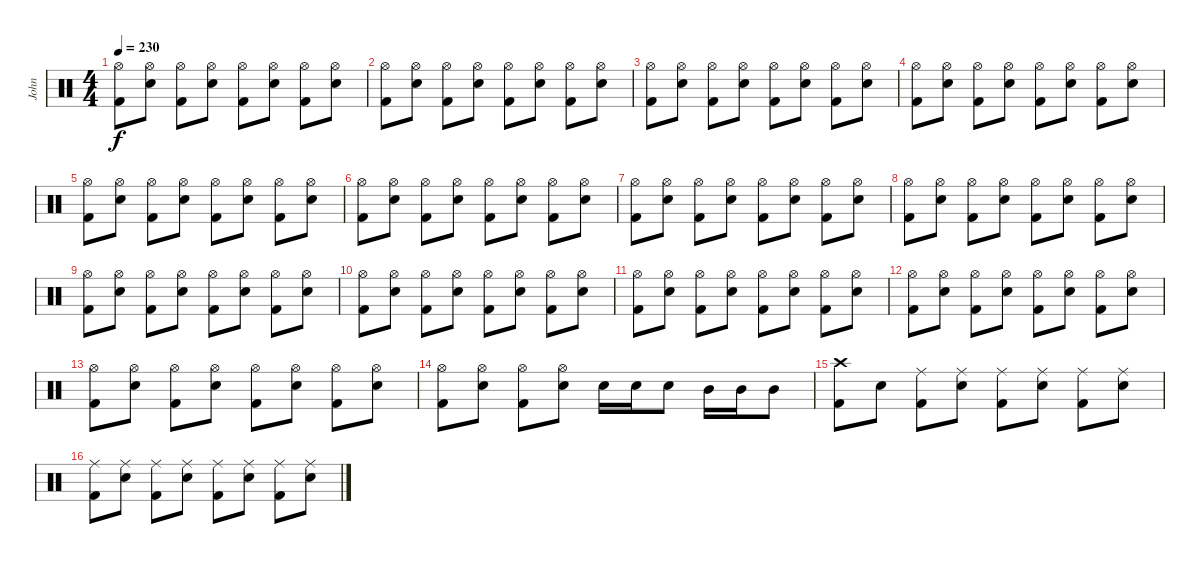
\track ("John" "John") {instrument percussion}
\staff {score}
\articulation defaults
\ts (4 4)
\tempo 230
\clef neutral
\ks c
("Hi-Hat (open)" "Kick (hit) 2").8{dy f} ("Hi-Hat (open)" "Electric Snare (hit)").8 ("Hi-Hat (open)" "Kick (hit) 2").8 ("Hi-Hat (open)" "Electric Snare (hit)").8 ("Hi-Hat (open)" "Kick (hit) 2").8 ("Hi-Hat (open)" "Electric Snare (hit)").8 ("Hi-Hat (open)" "Kick (hit) 2").8 ("Hi-Hat (open)" "Electric Snare (hit)").8 |
("Hi-Hat (open)" "Kick (hit) 2").8 ("Hi-Hat (open)" "Electric Snare (hit)").8 ("Hi-Hat (open)" "Kick (hit) 2").8 ("Hi-Hat (open)" "Electric Snare (hit)").8 ("Hi-Hat (open)" "Kick (hit) 2").8 ("Hi-Hat (open)" "Electric Snare (hit)").8 ("Hi-Hat (open)" "Kick (hit) 2").8 ("Hi-Hat (open)" "Electric Snare (hit)").8 |
("Hi-Hat (open)" "Kick (hit) 2").8 ("Hi-Hat (open)" "Electric Snare (hit)").8 ("Hi-Hat (open)" "Kick (hit) 2").8 ("Hi-Hat (open)" "Electric Snare (hit)").8 ("Hi-Hat (open)" "Kick (hit) 2").8 ("Hi-Hat (open)" "Electric Snare (hit)").8 ("Hi-Hat (open)" "Kick (hit) 2").8 ("Hi-Hat (open)" "Electric Snare (hit)").8 |
("Hi-Hat (open)" "Kick (hit) 2").8 ("Hi-Hat (open)" "Electric Snare (hit)").8 ("Hi-Hat (open)" "Kick (hit) 2").8 ("Hi-Hat (open)" "Electric Snare (hit)").8 ("Hi-Hat (open)" "Kick (hit) 2").8 ("Hi-Hat (open)" "Electric Snare (hit)").8 ("Hi-Hat (open)" "Kick (hit) 2").8 ("Hi-Hat (open)" "Electric Snare (hit)").8 |
("Hi-Hat (open)" "Kick (hit) 2").8 ("Hi-Hat (open)" "Electric Snare (hit)").8 ("Hi-Hat (open)" "Kick (hit) 2").8 ("Hi-Hat (open)" "Electric Snare (hit)").8 ("Hi-Hat (open)" "Kick (hit) 2").8 ("Hi-Hat (open)" "Electric Snare (hit)").8 ("Hi-Hat (open)" "Kick (hit) 2").8 ("Hi-Hat (open)" "Electric Snare (hit)").8 |
("Hi-Hat (open)" "Kick (hit) 2").8 ("Hi-Hat (open)" "Electric Snare (hit)").8 ("Hi-Hat (open)" "Kick (hit) 2").8 ("Hi-Hat (open)" "Electric Snare (hit)").8 ("Hi-Hat (open)" "Kick (hit) 2").8 ("Hi-Hat (open)" "Electric Snare (hit)").8 ("Hi-Hat (open)" "Kick (hit) 2").8 ("Hi-Hat (open)" "Electric Snare (hit)").8 |
("Hi-Hat (open)" "Kick (hit) 2").8 ("Hi-Hat (open)" "Electric Snare (hit)").8 ("Hi-Hat (open)" "Kick (hit) 2").8 ("Hi-Hat (open)" "Electric Snare (hit)").8 ("Hi-Hat (open)" "Kick (hit) 2").8 ("Hi-Hat (open)" "Electric Snare (hit)").8 ("Hi-Hat (open)" "Kick (hit) 2").8 ("Hi-Hat (open)" "Electric Snare (hit)").8 |
("Hi-Hat (open)" "Kick (hit) 2").8 ("Hi-Hat (open)" "Electric Snare (hit)").8 ("Hi-Hat (open)" "Kick (hit) 2").8 ("Hi-Hat (open)" "Electric Snare (hit)").8 ("Hi-Hat (open)" "Kick (hit) 2").8 ("Hi-Hat (open)" "Electric Snare (hit)").8 ("Hi-Hat (open)" "Kick (hit) 2").8 ("Hi-Hat (open)" "Electric Snare (hit)").8 |
("Hi-Hat (open)" "Kick (hit) 2").8 ("Hi-Hat (open)" "Electric Snare (hit)").8 ("Hi-Hat (open)" "Kick (hit) 2").8 ("Hi-Hat (open)" "Electric Snare (hit)").8 ("Hi-Hat (open)" "Kick (hit) 2").8 ("Hi-Hat (open)" "Electric Snare (hit)").8 ("Hi-Hat (open)" "Kick (hit) 2").8 ("Hi-Hat (open)" "Electric Snare (hit)").8 |
("Hi-Hat (open)" "Kick (hit) 2").8 ("Hi-Hat (open)" "Electric Snare (hit)").8 ("Hi-Hat (open)" "Kick (hit) 2").8 ("Hi-Hat (open)" "Electric Snare (hit)").8 ("Hi-Hat (open)" "Kick (hit) 2").8 ("Hi-Hat (open)" "Electric Snare (hit)").8 ("Hi-Hat (open)" "Kick (hit) 2").8 ("Hi-Hat (open)" "Electric Snare (hit)").8 |
("Hi-Hat (open)" "Kick (hit) 2").8 ("Hi-Hat (open)" "Electric Snare (hit)").8 ("Hi-Hat (open)" "Kick (hit) 2").8 ("Hi-Hat (open)" "Electric Snare (hit)").8 ("Hi-Hat (open)" "Kick (hit) 2").8 ("Hi-Hat (open)" "Electric Snare (hit)").8 ("Hi-Hat (open)" "Kick (hit) 2").8 ("Hi-Hat (open)" "Electric Snare (hit)").8 |
("Hi-Hat (open)" "Kick (hit) 2").8 ("Hi-Hat (open)" "Electric Snare (hit)").8 ("Hi-Hat (open)" "Kick (hit) 2").8 ("Hi-Hat (open)" "Electric Snare (hit)").8 ("Hi-Hat (open)" "Kick (hit) 2").8 ("Hi-Hat (open)" "Electric Snare (hit)").8 ("Hi-Hat (open)" "Kick (hit) 2").8 ("Hi-Hat (open)" "Electric Snare (hit)").8 |
("Hi-Hat (open)" "Kick (hit) 2").8 ("Hi-Hat (open)" "Electric Snare (hit)").8 ("Hi-Hat (open)" "Kick (hit) 2").8 ("Hi-Hat (open)" "Electric Snare (hit)").8 ("Hi-Hat (open)" "Kick (hit) 2").8 ("Hi-Hat (open)" "Electric Snare (hit)").8 ("Hi-Hat (open)" "Kick (hit) 2").8 ("Hi-Hat (open)" "Electric Snare (hit)").8 |
("Hi-Hat (open)" "Kick (hit) 2").8 ("Hi-Hat (open)" "Electric Snare (hit)").8 ("Hi-Hat (open)" "Kick (hit) 2").8 ("Hi-Hat (open)" "Electric Snare (hit)").8 "Electric Snare (hit)".16 "Electric Snare (hit)".16 "Electric Snare (hit)".8 "Mid Tom (hit)".16 "Mid Tom (hit)".16 "Mid Tom (hit)".8 |
("Crash high (hit)" "Kick (hit) 2").8 "Electric Snare (hit)".8 ("Ride (middle)" "Kick (hit) 2").8 ("Ride (middle)" "Electric Snare (hit)").8 ("Ride (middle)" "Kick (hit) 2").8 ("Ride (middle)" "Electric Snare (hit)").8 ("Ride (middle)" "Kick (hit) 2").8 ("Ride (middle)" "Electric Snare (hit)").8 |
("Ride (middle)" "Kick (hit) 2").8 ("Ride (middle)" "Electric Snare (hit)").8 ("Ride (middle)" "Kick (hit) 2").8 ("Ride (middle)" "Electric Snare (hit)").8 ("Ride (middle)" "Kick (hit) 2").8 ("Ride (middle)" "Electric Snare (hit)").8 ("Ride (middle)" "Kick (hit) 2").8 ("Ride (middle)" "Electric Snare (hit)").8
